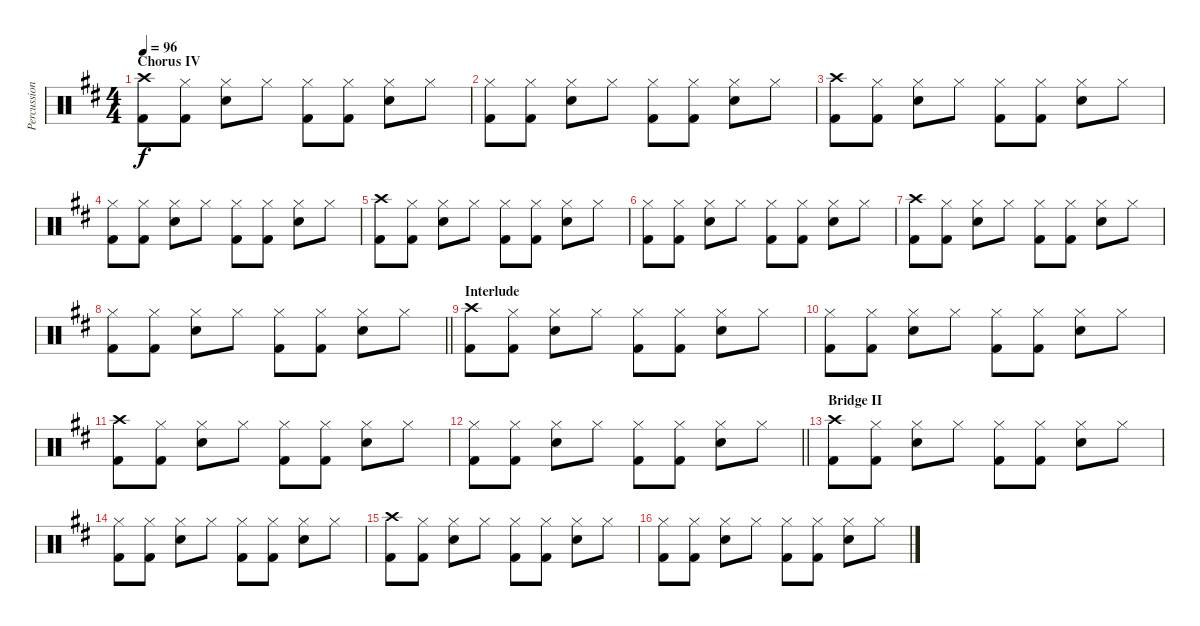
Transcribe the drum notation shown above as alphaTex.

\track ("Percussions" "Percussion") {instrument percussion}
\staff {score}
\articulation defaults
\ts (4 4)
\section ("" "Chorus IV")
\tempo 96
\clef neutral
\ks d
("Crash high (hit)" "Kick (hit) 2").8{dy f} ("Hi-Hat (closed)" "Kick (hit) 2").8 ("Hi-Hat (closed)" "Snare (hit) 2").8 "Hi-Hat (closed)".8 ("Hi-Hat (closed)" "Kick (hit) 2").8 ("Hi-Hat (closed)" "Kick (hit) 2").8 ("Hi-Hat (closed)" "Snare (hit) 2").8 "Hi-Hat (closed)".8 |
("Hi-Hat (closed)" "Kick (hit) 2").8 ("Hi-Hat (closed)" "Kick (hit) 2").8 ("Hi-Hat (closed)" "Snare (hit) 2").8 "Hi-Hat (closed)".8 ("Hi-Hat (closed)" "Kick (hit) 2").8 ("Hi-Hat (closed)" "Kick (hit) 2").8 ("Hi-Hat (closed)" "Snare (hit) 2").8 "Hi-Hat (closed)".8 |
("Crash high (hit)" "Kick (hit) 2").8 ("Hi-Hat (closed)" "Kick (hit) 2").8 ("Hi-Hat (closed)" "Snare (hit) 2").8 "Hi-Hat (closed)".8 ("Hi-Hat (closed)" "Kick (hit) 2").8 ("Hi-Hat (closed)" "Kick (hit) 2").8 ("Hi-Hat (closed)" "Snare (hit) 2").8 "Hi-Hat (closed)".8 |
("Hi-Hat (closed)" "Kick (hit) 2").8 ("Hi-Hat (closed)" "Kick (hit) 2").8 ("Hi-Hat (closed)" "Snare (hit) 2").8 "Hi-Hat (closed)".8 ("Hi-Hat (closed)" "Kick (hit) 2").8 ("Hi-Hat (closed)" "Kick (hit) 2").8 ("Hi-Hat (closed)" "Snare (hit) 2").8 "Hi-Hat (closed)".8 |
("Crash high (hit)" "Kick (hit) 2").8 ("Hi-Hat (closed)" "Kick (hit) 2").8 ("Hi-Hat (closed)" "Snare (hit) 2").8 "Hi-Hat (closed)".8 ("Hi-Hat (closed)" "Kick (hit) 2").8 ("Hi-Hat (closed)" "Kick (hit) 2").8 ("Hi-Hat (closed)" "Snare (hit) 2").8 "Hi-Hat (closed)".8 |
("Hi-Hat (closed)" "Kick (hit) 2").8 ("Hi-Hat (closed)" "Kick (hit) 2").8 ("Hi-Hat (closed)" "Snare (hit) 2").8 "Hi-Hat (closed)".8 ("Hi-Hat (closed)" "Kick (hit) 2").8 ("Hi-Hat (closed)" "Kick (hit) 2").8 ("Hi-Hat (closed)" "Snare (hit) 2").8 "Hi-Hat (closed)".8 |
("Crash high (hit)" "Kick (hit) 2").8 ("Hi-Hat (closed)" "Kick (hit) 2").8 ("Hi-Hat (closed)" "Snare (hit) 2").8 "Hi-Hat (closed)".8 ("Hi-Hat (closed)" "Kick (hit) 2").8 ("Hi-Hat (closed)" "Kick (hit) 2").8 ("Hi-Hat (closed)" "Snare (hit) 2").8 "Hi-Hat (closed)".8 |
\barLineRight lightlight
("Hi-Hat (closed)" "Kick (hit) 2").8 ("Hi-Hat (closed)" "Kick (hit) 2").8 ("Hi-Hat (closed)" "Snare (hit) 2").8 "Hi-Hat (closed)".8 ("Hi-Hat (closed)" "Kick (hit) 2").8 ("Hi-Hat (closed)" "Kick (hit) 2").8 ("Hi-Hat (closed)" "Snare (hit) 2").8 "Hi-Hat (closed)".8 |
\section ("" "Interlude")
("Crash high (hit)" "Kick (hit) 2").8 ("Hi-Hat (closed)" "Kick (hit) 2").8 ("Hi-Hat (closed)" "Snare (hit) 2").8 "Hi-Hat (closed)".8 ("Hi-Hat (closed)" "Kick (hit) 2").8 ("Hi-Hat (closed)" "Kick (hit) 2").8 ("Hi-Hat (closed)" "Snare (hit) 2").8 "Hi-Hat (closed)".8 |
("Hi-Hat (closed)" "Kick (hit) 2").8 ("Hi-Hat (closed)" "Kick (hit) 2").8 ("Hi-Hat (closed)" "Snare (hit) 2").8 "Hi-Hat (closed)".8 ("Hi-Hat (closed)" "Kick (hit) 2").8 ("Hi-Hat (closed)" "Kick (hit) 2").8 ("Hi-Hat (closed)" "Snare (hit) 2").8 "Hi-Hat (closed)".8 |
("Crash high (hit)" "Kick (hit) 2").8 ("Hi-Hat (closed)" "Kick (hit) 2").8 ("Hi-Hat (closed)" "Snare (hit) 2").8 "Hi-Hat (closed)".8 ("Hi-Hat (closed)" "Kick (hit) 2").8 ("Hi-Hat (closed)" "Kick (hit) 2").8 ("Hi-Hat (closed)" "Snare (hit) 2").8 "Hi-Hat (closed)".8 |
\barLineRight lightlight
("Hi-Hat (closed)" "Kick (hit) 2").8 ("Hi-Hat (closed)" "Kick (hit) 2").8 ("Hi-Hat (closed)" "Snare (hit) 2").8 "Hi-Hat (closed)".8 ("Hi-Hat (closed)" "Kick (hit) 2").8 ("Hi-Hat (closed)" "Kick (hit) 2").8 ("Hi-Hat (closed)" "Snare (hit) 2").8 "Hi-Hat (closed)".8 |
\section ("" "Bridge II")
("Crash high (hit)" "Kick (hit) 2").8 ("Hi-Hat (closed)" "Kick (hit) 2").8 ("Hi-Hat (closed)" "Snare (hit) 2").8 "Hi-Hat (closed)".8 ("Hi-Hat (closed)" "Kick (hit) 2").8 ("Hi-Hat (closed)" "Kick (hit) 2").8 ("Hi-Hat (closed)" "Snare (hit) 2").8 "Hi-Hat (closed)".8 |
("Hi-Hat (closed)" "Kick (hit) 2").8 ("Hi-Hat (closed)" "Kick (hit) 2").8 ("Hi-Hat (closed)" "Snare (hit) 2").8 "Hi-Hat (closed)".8 ("Hi-Hat (closed)" "Kick (hit) 2").8 ("Hi-Hat (closed)" "Kick (hit) 2").8 ("Hi-Hat (closed)" "Snare (hit) 2").8 "Hi-Hat (closed)".8 |
("Crash high (hit)" "Kick (hit) 2").8 ("Hi-Hat (closed)" "Kick (hit) 2").8 ("Hi-Hat (closed)" "Snare (hit) 2").8 "Hi-Hat (closed)".8 ("Hi-Hat (closed)" "Kick (hit) 2").8 ("Hi-Hat (closed)" "Kick (hit) 2").8 ("Hi-Hat (closed)" "Snare (hit) 2").8 "Hi-Hat (closed)".8 |
("Hi-Hat (closed)" "Kick (hit) 2").8 ("Hi-Hat (closed)" "Kick (hit) 2").8 ("Hi-Hat (closed)" "Snare (hit) 2").8 "Hi-Hat (closed)".8 ("Hi-Hat (closed)" "Kick (hit) 2").8 ("Hi-Hat (closed)" "Kick (hit) 2").8 ("Hi-Hat (closed)" "Snare (hit) 2").8 "Hi-Hat (closed)".8
